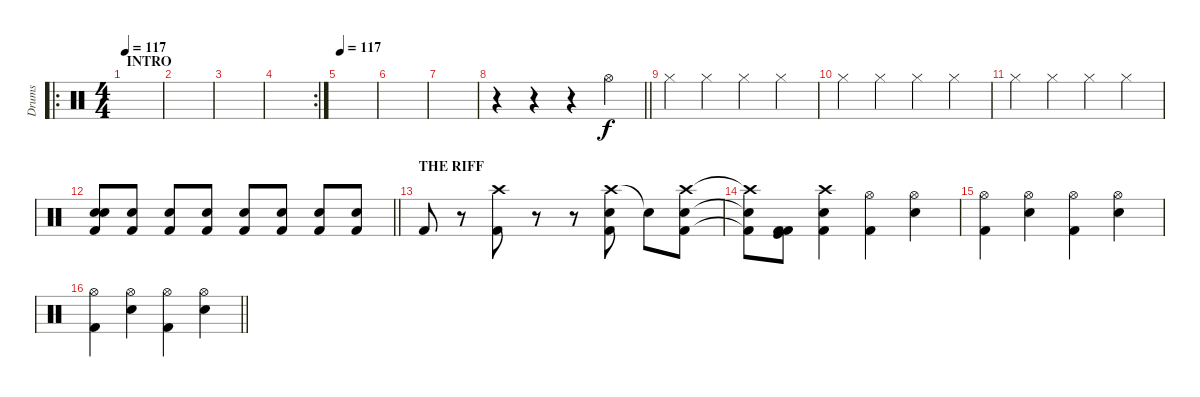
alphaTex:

\track ("Drums" "Drums") {instrument percussion}
\staff {score}
\articulation defaults
\ro
\ts (4 4)
\section ("" "INTRO")
\tempo 117
\tempo 102
\tempo 117
\clef neutral
\ks c
|
|
|
\rc 2
|
\tempo 117
|
|
|
\barLineRight lightlight
r.4 r.4 r.4 "Hi-Hat (open)".4 |
"Hi-Hat (closed)".4 "Hi-Hat (closed)".4 "Hi-Hat (closed)".4 "Hi-Hat (closed)".4 |
"Hi-Hat (closed)".4 "Hi-Hat (closed)".4 "Hi-Hat (closed)".4 "Hi-Hat (closed)".4 |
"Hi-Hat (closed)".4 "Hi-Hat (closed)".4 "Hi-Hat (closed)".4 "Hi-Hat (closed)".4 |
\barLineRight lightlight
("Electric Snare (hit)" "Electric Snare (hit)" "Kick (hit) 2").8 ("Electric Snare (hit)" "Kick (hit) 2").8{volume 5} ("Electric Snare (hit)" "Kick (hit) 2").8{volume 16} ("Electric Snare (hit)" "Kick (hit) 2").8 ("Electric Snare (hit)" "Kick (hit) 2").8 ("Electric Snare (hit)" "Kick (hit) 2").8 ("Electric Snare (hit)" "Kick (hit) 2").8 ("Electric Snare (hit)" "Kick (hit) 2").8 |
\section ("" "THE RIFF")
"Kick (hit) 2".8 r.8 ("Crash high (hit)" "Kick (hit) 2").8 r.8 r.8 ("Crash high (hit)" "Electric Snare (hit)" "Kick (hit) 2").8 "Snare (hit)"{t}.8 ("Crash high (hit)" "Electric Snare (hit)" "Kick (hit) 2").8 |
("Crash high (hit)"{t} "Electric Snare (hit)"{t} "Kick (hit) 2"{t}).8 ("Kick (hit) 2" "Kick (hit)" "Kick (hit) 2").8 ("Crash high (hit)" "Electric Snare (hit)" "Kick (hit) 2").4 ("Hi-Hat (open)" "Kick (hit) 2").4 ("Hi-Hat (open)" "Electric Snare (hit)").4 |
("Hi-Hat (open)" "Kick (hit) 2").4 ("Hi-Hat (open)" "Electric Snare (hit)").4 ("Hi-Hat (open)" "Kick (hit) 2").4 ("Hi-Hat (open)" "Electric Snare (hit)").4 |
\barLineRight lightlight
("Hi-Hat (open)" "Kick (hit) 2").4 ("Hi-Hat (open)" "Electric Snare (hit)").4 ("Hi-Hat (open)" "Kick (hit) 2").4 ("Hi-Hat (open)" "Electric Snare (hit)").4
